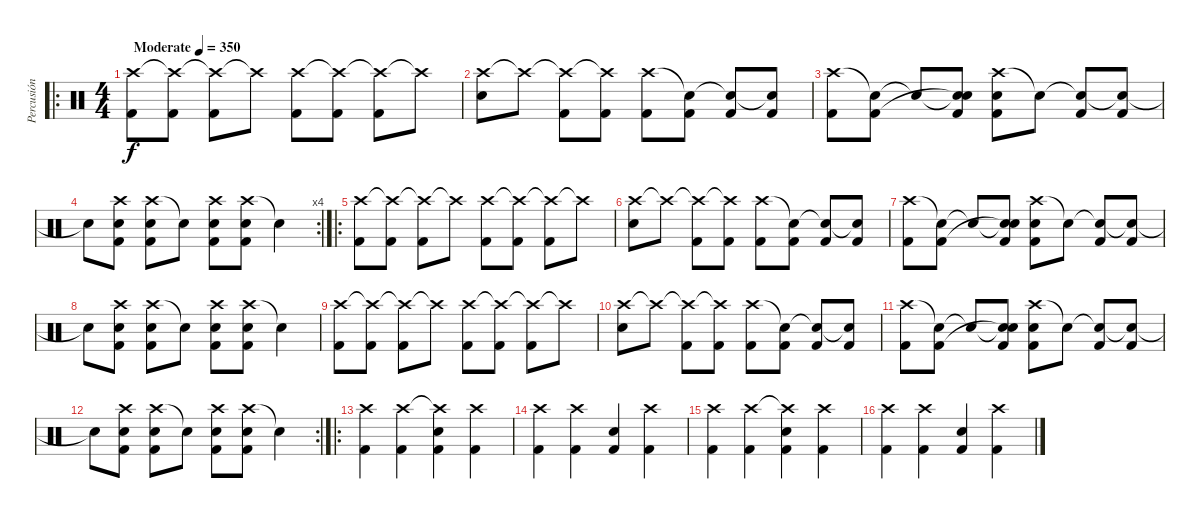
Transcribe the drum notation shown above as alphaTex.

\track ("Percusión" "Percusión") {instrument percussion}
\staff {score}
\articulation defaults
\ro
\ts (4 4)
\tempo (350 "Moderate")
\clef neutral
\ks c
("Crash high (hit)" "Kick (hit) 2").8{dy f} ("Crash high (hit)"{t} "Kick (hit) 2").8 ("Crash high (hit)"{t} "Kick (hit) 2").8 "Crash high (hit)"{t}.8 ("Crash high (hit)" "Kick (hit) 2").8 ("Crash high (hit)"{t} "Kick (hit) 2").8 ("Crash high (hit)"{t} "Kick (hit) 2").8 "Crash high (hit)"{t}.8 |
("Crash high (hit)" "Snare (hit) 2").8 "Crash high (hit)"{t}.8 ("Crash high (hit)"{t} "Kick (hit) 2").8 ("Crash high (hit)"{t} "Kick (hit) 2").8 ("Crash high (hit)" "Kick (hit) 2").8 ("Snare (hit)"{t} "Kick (hit) 2").8 ("Snare (hit)"{t} "Kick (hit) 2").8 ("Snare (hit)"{t} "Kick (hit) 2").8 |
("Crash high (hit)" "Kick (hit) 2").8 ("Snare (hit)"{t} "Kick (hit) 2").8 "Snare (hit)"{t}.8 ("Snare (hit)"{t} "Snare (hit) 2"{t} "Kick (hit) 2").8 ("Crash high (hit)" "Snare (hit) 2" "Kick (hit) 2").8 "Snare (hit)"{t}.8 ("Snare (hit)"{t} "Kick (hit) 2").8 ("Snare (hit)"{t} "Kick (hit) 2").8 |
\rc 4 "Snare (hit)"{t}.8
("Crash high (hit)" "Snare (hit) 2" "Kick (hit) 2").8 ("Crash high (hit)" "Snare (hit) 2" "Kick (hit) 2").8 "Snare (hit)"{t}.8 ("Crash high (hit)" "Snare (hit) 2" "Kick (hit) 2").8 ("Crash high (hit)" "Snare (hit) 2" "Kick (hit) 2").8 "Snare (hit)"{t}.4 |
\ro
("Crash high (hit)" "Kick (hit) 2").8 ("Crash high (hit)"{t} "Kick (hit) 2").8 ("Crash high (hit)"{t} "Kick (hit) 2").8 "Crash high (hit)"{t}.8 ("Crash high (hit)" "Kick (hit) 2").8 ("Crash high (hit)"{t} "Kick (hit) 2").8 ("Crash high (hit)"{t} "Kick (hit) 2").8 "Crash high (hit)"{t}.8 |
("Crash high (hit)" "Snare (hit) 2").8 "Crash high (hit)"{t}.8 ("Crash high (hit)"{t} "Kick (hit) 2").8 ("Crash high (hit)"{t} "Kick (hit) 2").8 ("Crash high (hit)" "Kick (hit) 2").8 ("Snare (hit)"{t} "Kick (hit) 2").8 ("Snare (hit)"{t} "Kick (hit) 2").8 ("Snare (hit)"{t} "Kick (hit) 2").8 |
("Crash high (hit)" "Kick (hit) 2").8 ("Snare (hit)"{t} "Kick (hit) 2").8 "Snare (hit)"{t}.8 ("Snare (hit)"{t} "Snare (hit) 2"{t} "Kick (hit) 2").8 ("Crash high (hit)" "Snare (hit) 2" "Kick (hit) 2").8 "Snare (hit)"{t}.8 ("Snare (hit)"{t} "Kick (hit) 2").8 ("Snare (hit)"{t} "Kick (hit) 2").8 |
"Snare (hit)"{t}.8 ("Crash high (hit)" "Snare (hit) 2" "Kick (hit) 2").8 ("Crash high (hit)" "Snare (hit) 2" "Kick (hit) 2").8 "Snare (hit)"{t}.8 ("Crash high (hit)" "Snare (hit) 2" "Kick (hit) 2").8 ("Crash high (hit)" "Snare (hit) 2" "Kick (hit) 2").8 "Snare (hit)"{t}.4 |
("Crash high (hit)" "Kick (hit) 2").8 ("Crash high (hit)"{t} "Kick (hit) 2").8 ("Crash high (hit)"{t} "Kick (hit) 2").8 "Crash high (hit)"{t}.8 ("Crash high (hit)" "Kick (hit) 2").8 ("Crash high (hit)"{t} "Kick (hit) 2").8 ("Crash high (hit)"{t} "Kick (hit) 2").8 "Crash high (hit)"{t}.8 |
("Crash high (hit)" "Snare (hit) 2").8 "Crash high (hit)"{t}.8 ("Crash high (hit)"{t} "Kick (hit) 2").8 ("Crash high (hit)"{t} "Kick (hit) 2").8 ("Crash high (hit)" "Kick (hit) 2").8 ("Snare (hit)"{t} "Kick (hit) 2").8 ("Snare (hit)"{t} "Kick (hit) 2").8 ("Snare (hit)"{t} "Kick (hit) 2").8 |
("Crash high (hit)" "Kick (hit) 2").8 ("Snare (hit)"{t} "Kick (hit) 2").8 "Snare (hit)"{t}.8 ("Snare (hit)"{t} "Snare (hit) 2"{t} "Kick (hit) 2").8 ("Crash high (hit)" "Snare (hit) 2" "Kick (hit) 2").8 "Snare (hit)"{t}.8 ("Snare (hit)"{t} "Kick (hit) 2").8 ("Snare (hit)"{t} "Kick (hit) 2").8 |
\rc 2 "Snare (hit)"{t}.8
("Crash high (hit)" "Snare (hit) 2" "Kick (hit) 2").8 ("Crash high (hit)" "Snare (hit) 2" "Kick (hit) 2").8 "Snare (hit)"{t}.8 ("Crash high (hit)" "Snare (hit) 2" "Kick (hit) 2").8 ("Crash high (hit)" "Snare (hit) 2" "Kick (hit) 2").8 "Snare (hit)"{t}.4 |
\ro
("Crash high (hit)" "Kick (hit) 2").4 ("Crash high (hit)" "Kick (hit) 2").4 ("Crash high (hit)"{t} "Snare (hit) 2" "Kick (hit) 2").4 ("Crash high (hit)" "Kick (hit) 2").4 |
("Crash high (hit)" "Kick (hit) 2").4 ("Crash high (hit)" "Kick (hit) 2").4 ("Snare (hit) 2" "Kick (hit) 2").4 ("Crash high (hit)" "Kick (hit) 2").4 |
("Crash high (hit)" "Kick (hit) 2").4 ("Crash high (hit)" "Kick (hit) 2").4 ("Crash high (hit)"{t} "Snare (hit) 2" "Kick (hit) 2").4 ("Crash high (hit)" "Kick (hit) 2").4 |
("Crash high (hit)" "Kick (hit) 2").4 ("Crash high (hit)" "Kick (hit) 2").4 ("Snare (hit) 2" "Kick (hit) 2").4 ("Crash high (hit)" "Kick (hit) 2").4
